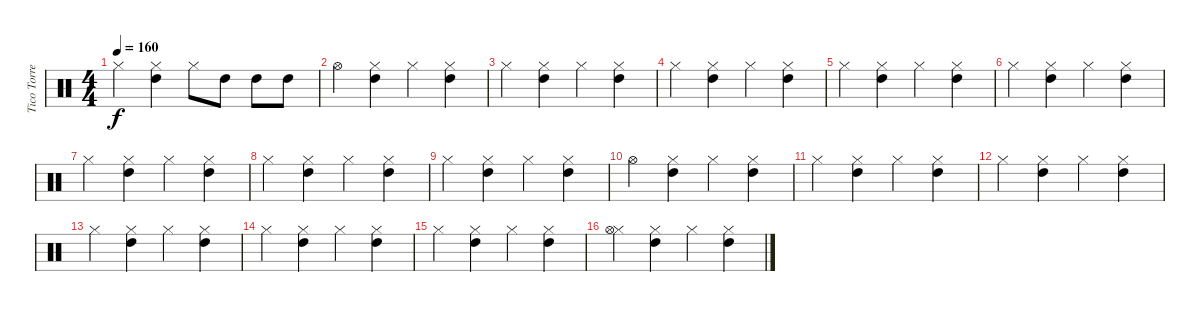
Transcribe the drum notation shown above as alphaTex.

\track ("Tico Torres" "Tico Torre") {instrument percussion}
\staff {score}
\articulation defaults
\ts (4 4)
\tempo 160
\clef neutral
\ks c "Hi-Hat (closed)".4{dy f}
("High Tom (hit)" "Hi-Hat (closed)").4 "Hi-Hat (closed)".8 "High Tom (hit)".8 "High Tom (hit)".8 "High Tom (hit)".8 |
"Hi-Hat (open)".4 ("Hi-Hat (closed)" "High Tom (hit)").4 "Hi-Hat (closed)".4 ("Hi-Hat (closed)" "High Tom (hit)").4 |
"Hi-Hat (closed)".4 ("Hi-Hat (closed)" "High Tom (hit)").4 "Hi-Hat (closed)".4 ("Hi-Hat (closed)" "High Tom (hit)").4 |
"Hi-Hat (closed)".4 ("Hi-Hat (closed)" "High Tom (hit)").4 "Hi-Hat (closed)".4 ("Hi-Hat (closed)" "High Tom (hit)").4 |
"Hi-Hat (closed)".4 ("Hi-Hat (closed)" "High Tom (hit)").4 "Hi-Hat (closed)".4 ("Hi-Hat (closed)" "High Tom (hit)").4 |
"Hi-Hat (closed)".4 ("Hi-Hat (closed)" "High Tom (hit)").4 "Hi-Hat (closed)".4 ("Hi-Hat (closed)" "High Tom (hit)").4 |
"Hi-Hat (closed)".4 ("Hi-Hat (closed)" "High Tom (hit)").4 "Hi-Hat (closed)".4 ("Hi-Hat (closed)" "High Tom (hit)").4 |
"Hi-Hat (closed)".4 ("Hi-Hat (closed)" "High Tom (hit)").4 "Hi-Hat (closed)".4 ("Hi-Hat (closed)" "High Tom (hit)").4 |
"Hi-Hat (closed)".4 ("Hi-Hat (closed)" "High Tom (hit)").4 "Hi-Hat (closed)".4 ("Hi-Hat (closed)" "High Tom (hit)").4 |
"Hi-Hat (open)".4 ("Hi-Hat (closed)" "High Tom (hit)").4 "Hi-Hat (closed)".4 ("Hi-Hat (closed)" "High Tom (hit)").4 |
"Hi-Hat (closed)".4 ("Hi-Hat (closed)" "High Tom (hit)").4 "Hi-Hat (closed)".4 ("Hi-Hat (closed)" "High Tom (hit)").4 |
"Hi-Hat (closed)".4 ("Hi-Hat (closed)" "High Tom (hit)").4 "Hi-Hat (closed)".4 ("Hi-Hat (closed)" "High Tom (hit)").4 |
"Hi-Hat (closed)".4 ("Hi-Hat (closed)" "High Tom (hit)").4 "Hi-Hat (closed)".4 ("Hi-Hat (closed)" "High Tom (hit)").4 |
"Hi-Hat (closed)".4 ("Hi-Hat (closed)" "High Tom (hit)").4 "Hi-Hat (closed)".4 ("Hi-Hat (closed)" "High Tom (hit)").4 |
"Hi-Hat (closed)".4 ("Hi-Hat (closed)" "High Tom (hit)").4 "Hi-Hat (closed)".4 ("Hi-Hat (closed)" "High Tom (hit)").4 |
("Hi-Hat (closed)" "Hi-Hat (open)").4 ("Hi-Hat (closed)" "High Tom (hit)").4 "Hi-Hat (closed)".4 ("Hi-Hat (closed)" "High Tom (hit)").4
